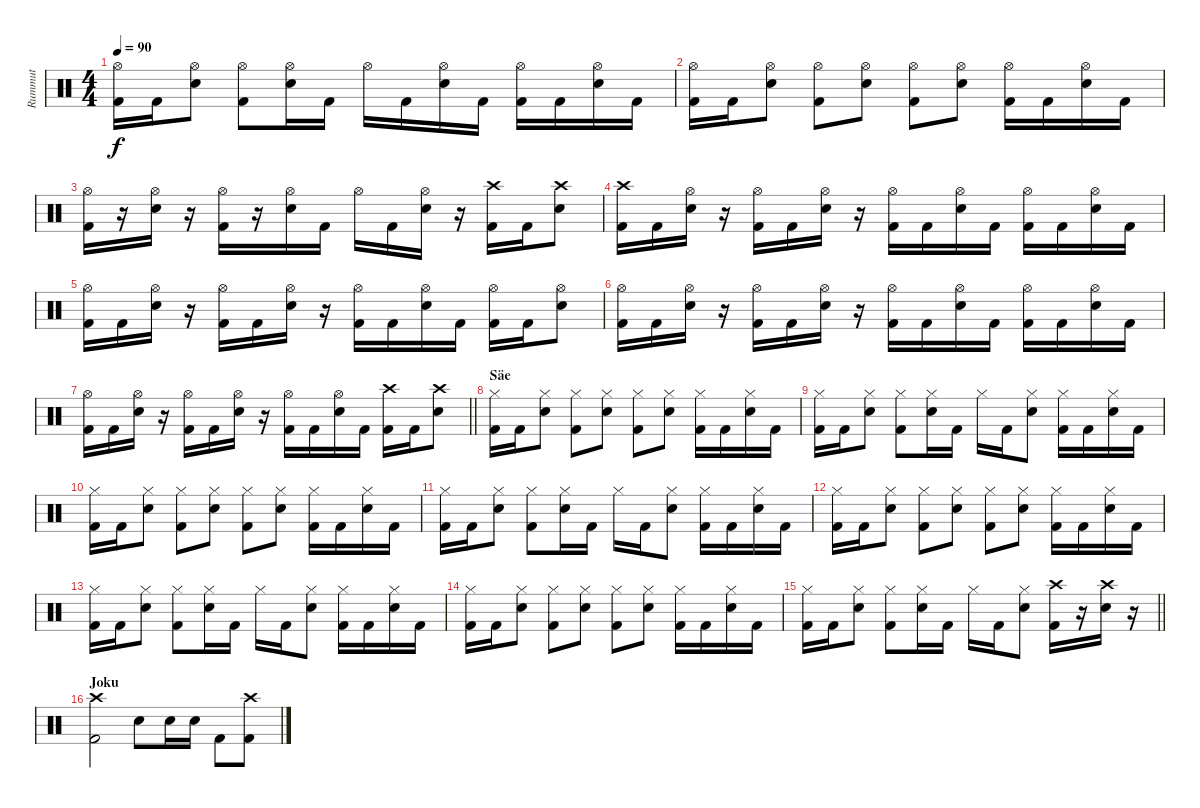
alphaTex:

\track ("Rummut" "Rummut") {instrument percussion}
\staff {score}
\articulation defaults
\ts (4 4)
\tempo 90
\clef neutral
\ks c
("Hi-Hat (open)" "Kick (hit) 2").16{dy f} "Kick (hit) 2".16 ("Hi-Hat (open)" "Snare (hit) 2").8 ("Hi-Hat (open)" "Kick (hit) 2").8 ("Hi-Hat (open)" "Snare (hit) 2").16 "Kick (hit) 2".16 "Hi-Hat (open)".16 "Kick (hit) 2".16 ("Hi-Hat (open)" "Snare (hit) 2").16 "Kick (hit) 2".16 ("Hi-Hat (open)" "Kick (hit) 2").16 "Kick (hit) 2".16 ("Hi-Hat (open)" "Snare (hit) 2").16 "Kick (hit) 2".16 |
("Hi-Hat (open)" "Kick (hit) 2").16 "Kick (hit) 2".16 ("Hi-Hat (open)" "Snare (hit) 2").8 ("Hi-Hat (open)" "Kick (hit) 2").8 ("Hi-Hat (open)" "Snare (hit) 2").8 ("Hi-Hat (open)" "Kick (hit) 2").8 ("Hi-Hat (open)" "Snare (hit) 2").8 ("Hi-Hat (open)" "Kick (hit) 2").16 "Kick (hit) 2".16 ("Hi-Hat (open)" "Snare (hit) 2").16 "Kick (hit) 2".16 |
("Hi-Hat (open)" "Kick (hit) 2").16 r.16 ("Hi-Hat (open)" "Snare (hit) 2").16 r.16 ("Hi-Hat (open)" "Kick (hit) 2").16 r.16 ("Hi-Hat (open)" "Snare (hit) 2").16 "Kick (hit) 2".16 "Hi-Hat (open)".16 "Kick (hit) 2".16 ("Hi-Hat (open)" "Snare (hit) 2").16 r.16 ("Crash high (hit)" "Kick (hit) 2").16 "Kick (hit) 2".16 ("Crash high (hit)" "Snare (hit) 2").8 |
("Crash high (hit)" "Kick (hit) 2").16 "Kick (hit) 2".16 ("Hi-Hat (open)" "Snare (hit) 2").16 r.16 ("Hi-Hat (open)" "Kick (hit) 2").16 "Kick (hit) 2".16 ("Hi-Hat (open)" "Snare (hit) 2").16 r.16 ("Hi-Hat (open)" "Kick (hit) 2").16 "Kick (hit) 2".16 ("Hi-Hat (open)" "Snare (hit) 2").16 "Kick (hit) 2".16 ("Hi-Hat (open)" "Kick (hit) 2").16 "Kick (hit) 2".16 ("Hi-Hat (open)" "Snare (hit) 2").16 "Kick (hit) 2".16 |
("Hi-Hat (open)" "Kick (hit) 2").16 "Kick (hit) 2".16 ("Hi-Hat (open)" "Snare (hit) 2").16 r.16 ("Hi-Hat (open)" "Kick (hit) 2").16 "Kick (hit) 2".16 ("Hi-Hat (open)" "Snare (hit) 2").16 r.16 ("Hi-Hat (open)" "Kick (hit) 2").16 "Kick (hit) 2".16 ("Hi-Hat (open)" "Snare (hit) 2").16 "Kick (hit) 2".16 ("Hi-Hat (open)" "Kick (hit) 2").16 "Kick (hit) 2".16 ("Hi-Hat (open)" "Snare (hit) 2").8 |
("Hi-Hat (open)" "Kick (hit) 2").16 "Kick (hit) 2".16 ("Hi-Hat (open)" "Snare (hit) 2").16 r.16 ("Hi-Hat (open)" "Kick (hit) 2").16 "Kick (hit) 2".16 ("Hi-Hat (open)" "Snare (hit) 2").16 r.16 ("Hi-Hat (open)" "Kick (hit) 2").16 "Kick (hit) 2".16 ("Hi-Hat (open)" "Snare (hit) 2").16 "Kick (hit) 2".16 ("Hi-Hat (open)" "Kick (hit) 2").16 "Kick (hit) 2".16 ("Hi-Hat (open)" "Snare (hit) 2").16 "Kick (hit) 2".16 |
\barLineRight lightlight
("Hi-Hat (open)" "Kick (hit) 2").16 "Kick (hit) 2".16 ("Hi-Hat (open)" "Snare (hit) 2").16 r.16 ("Hi-Hat (open)" "Kick (hit) 2").16 "Kick (hit) 2".16 ("Hi-Hat (open)" "Snare (hit) 2").16 r.16 ("Hi-Hat (open)" "Kick (hit) 2").16 "Kick (hit) 2".16 ("Hi-Hat (open)" "Snare (hit) 2").16 "Kick (hit) 2".16 ("Crash high (hit)" "Kick (hit) 2").16 "Kick (hit) 2".16 ("Crash high (hit)" "Snare (hit) 2").8 |
\section ("" "Säe")
("Hi-Hat (closed)" "Kick (hit) 2").16 "Kick (hit) 2".16 ("Hi-Hat (closed)" "Snare (hit) 2").8 ("Hi-Hat (closed)" "Kick (hit) 2").8 ("Hi-Hat (closed)" "Snare (hit) 2").8 ("Hi-Hat (closed)" "Kick (hit) 2").8 ("Hi-Hat (closed)" "Snare (hit) 2").8 ("Hi-Hat (closed)" "Kick (hit) 2").16 "Kick (hit) 2".16 ("Hi-Hat (closed)" "Snare (hit) 2").16 "Kick (hit) 2".16 |
("Hi-Hat (closed)" "Kick (hit) 2").16 "Kick (hit) 2".16 ("Hi-Hat (closed)" "Snare (hit) 2").8 ("Hi-Hat (closed)" "Kick (hit) 2").8 ("Hi-Hat (closed)" "Snare (hit) 2").16 "Kick (hit) 2".16 "Hi-Hat (closed)".16 "Kick (hit) 2".16 ("Hi-Hat (closed)" "Snare (hit) 2").8 ("Hi-Hat (closed)" "Kick (hit) 2").16 "Kick (hit) 2".16 ("Hi-Hat (closed)" "Snare (hit) 2").16 "Kick (hit) 2".16 |
("Hi-Hat (closed)" "Kick (hit) 2").16 "Kick (hit) 2".16 ("Hi-Hat (closed)" "Snare (hit) 2").8 ("Hi-Hat (closed)" "Kick (hit) 2").8 ("Hi-Hat (closed)" "Snare (hit) 2").8 ("Hi-Hat (closed)" "Kick (hit) 2").8 ("Hi-Hat (closed)" "Snare (hit) 2").8 ("Hi-Hat (closed)" "Kick (hit) 2").16 "Kick (hit) 2".16 ("Hi-Hat (closed)" "Snare (hit) 2").16 "Kick (hit) 2".16 |
("Hi-Hat (closed)" "Kick (hit) 2").16 "Kick (hit) 2".16 ("Hi-Hat (closed)" "Snare (hit) 2").8 ("Hi-Hat (closed)" "Kick (hit) 2").8 ("Hi-Hat (closed)" "Snare (hit) 2").16 "Kick (hit) 2".16 "Hi-Hat (closed)".16 "Kick (hit) 2".16 ("Hi-Hat (closed)" "Snare (hit) 2").8 ("Hi-Hat (closed)" "Kick (hit) 2").16 "Kick (hit) 2".16 ("Hi-Hat (closed)" "Snare (hit) 2").16 "Kick (hit) 2".16 |
("Hi-Hat (closed)" "Kick (hit) 2").16 "Kick (hit) 2".16 ("Hi-Hat (closed)" "Snare (hit) 2").8 ("Hi-Hat (closed)" "Kick (hit) 2").8 ("Hi-Hat (closed)" "Snare (hit) 2").8 ("Hi-Hat (closed)" "Kick (hit) 2").8 ("Hi-Hat (closed)" "Snare (hit) 2").8 ("Hi-Hat (closed)" "Kick (hit) 2").16 "Kick (hit) 2".16 ("Hi-Hat (closed)" "Snare (hit) 2").16 "Kick (hit) 2".16 |
("Hi-Hat (closed)" "Kick (hit) 2").16 "Kick (hit) 2".16 ("Hi-Hat (closed)" "Snare (hit) 2").8 ("Hi-Hat (closed)" "Kick (hit) 2").8 ("Hi-Hat (closed)" "Snare (hit) 2").16 "Kick (hit) 2".16 "Hi-Hat (closed)".16 "Kick (hit) 2".16 ("Hi-Hat (closed)" "Snare (hit) 2").8 ("Hi-Hat (closed)" "Kick (hit) 2").16 "Kick (hit) 2".16 ("Hi-Hat (closed)" "Snare (hit) 2").16 "Kick (hit) 2".16 |
("Hi-Hat (closed)" "Kick (hit) 2").16 "Kick (hit) 2".16 ("Hi-Hat (closed)" "Snare (hit) 2").8 ("Hi-Hat (closed)" "Kick (hit) 2").8 ("Hi-Hat (closed)" "Snare (hit) 2").8 ("Hi-Hat (closed)" "Kick (hit) 2").8 ("Hi-Hat (closed)" "Snare (hit) 2").8 ("Hi-Hat (closed)" "Kick (hit) 2").16 "Kick (hit) 2".16 ("Hi-Hat (closed)" "Snare (hit) 2").16 "Kick (hit) 2".16 |
\barLineRight lightlight
("Hi-Hat (closed)" "Kick (hit) 2").16 "Kick (hit) 2".16 ("Hi-Hat (closed)" "Snare (hit) 2").8 ("Hi-Hat (closed)" "Kick (hit) 2").8 ("Hi-Hat (closed)" "Snare (hit) 2").16 "Kick (hit) 2".16 "Hi-Hat (closed)".16 "Kick (hit) 2".16 ("Hi-Hat (closed)" "Snare (hit) 2").8 ("Crash high (hit)" "Kick (hit) 2").16 r.16 ("Crash high (hit)" "Snare (hit) 2").16 r.16 |
\section ("" "Joku")
("Crash high (hit)" "Kick (hit) 2").2 "Snare (hit) 2".8 "Snare (hit) 2".16 "Snare (hit) 2".16 "Kick (hit) 2".8 ("Kick (hit) 2" "Crash high (hit)").8
